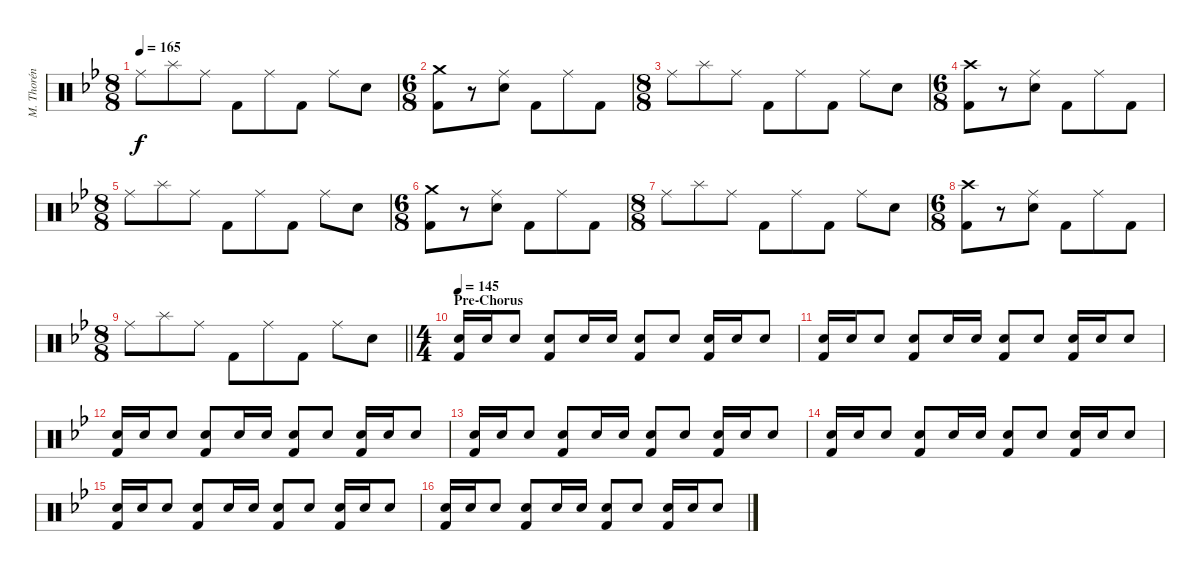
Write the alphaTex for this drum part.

\track ("M. Thorén (Drums)" "M. Thorén ") {instrument percussion}
\staff {score}
\articulation defaults
\ts (8 8)
\tempo 165
\clef neutral
\ks gminor "Ride (middle)".8{dy f} "Splash (hit)".8 "Ride (middle)".8 "Kick (hit) 2".8 "Ride (middle)".8 "Kick (hit) 2".8 "Ride (middle)".8 "Electric Snare (hit)".8
|
\ts (6 8)
("Crash medium (hit)" "Kick (hit) 2").8 r.8 ("Ride (middle)" "Electric Snare (hit)").8 "Kick (hit) 2".8 "Ride (middle)".8 "Kick (hit) 2".8 |
\ts (8 8)
"Ride (middle)".8 "Splash (hit)".8 "Ride (middle)".8 "Kick (hit) 2".8 "Ride (middle)".8 "Kick (hit) 2".8 "Ride (middle)".8 "Electric Snare (hit)".8 |
\ts (6 8)
("Crash high (hit)" "Kick (hit) 2").8 r.8 ("Ride (middle)" "Electric Snare (hit)").8 "Kick (hit) 2".8 "Ride (middle)".8 "Kick (hit) 2".8 |
\ts (8 8)
"Ride (middle)".8 "Splash (hit)".8 "Ride (middle)".8 "Kick (hit) 2".8 "Ride (middle)".8 "Kick (hit) 2".8 "Ride (middle)".8 "Electric Snare (hit)".8 |
\ts (6 8)
("Crash medium (hit)" "Kick (hit) 2").8 r.8 ("Ride (middle)" "Electric Snare (hit)").8 "Kick (hit) 2".8 "Ride (middle)".8 "Kick (hit) 2".8 |
\ts (8 8)
"Ride (middle)".8 "Splash (hit)".8 "Ride (middle)".8 "Kick (hit) 2".8 "Ride (middle)".8 "Kick (hit) 2".8 "Ride (middle)".8 "Electric Snare (hit)".8 |
\ts (6 8)
("Crash high (hit)" "Kick (hit) 2").8 r.8 ("Ride (middle)" "Electric Snare (hit)").8 "Kick (hit) 2".8 "Ride (middle)".8 "Kick (hit) 2".8 |
\ts (8 8)
\barLineRight lightlight "Ride (middle)".8 "Splash (hit)".8 "Ride (middle)".8 "Kick (hit) 2".8 "Ride (middle)".8 "Kick (hit) 2".8 "Ride (middle)".8 "Electric Snare (hit)".8
|
\ts (4 4)
\section ("" "Pre-Chorus")
\tempo 145
("Electric Snare (hit)" "Kick (hit) 2").16 "Electric Snare (hit)".16 "Electric Snare (hit)".8 ("Electric Snare (hit)" "Kick (hit) 2").8 "Electric Snare (hit)".16 "Electric Snare (hit)".16 ("Electric Snare (hit)" "Kick (hit) 2").8 "Electric Snare (hit)".8 ("Electric Snare (hit)" "Kick (hit) 2").16 "Electric Snare (hit)".16 "Electric Snare (hit)".8 |
("Electric Snare (hit)" "Kick (hit) 2").16 "Electric Snare (hit)".16 "Electric Snare (hit)".8 ("Electric Snare (hit)" "Kick (hit) 2").8 "Electric Snare (hit)".16 "Electric Snare (hit)".16 ("Electric Snare (hit)" "Kick (hit) 2").8 "Electric Snare (hit)".8 ("Electric Snare (hit)" "Kick (hit) 2").16 "Electric Snare (hit)".16 "Electric Snare (hit)".8 |
("Electric Snare (hit)" "Kick (hit) 2").16 "Electric Snare (hit)".16 "Electric Snare (hit)".8 ("Electric Snare (hit)" "Kick (hit) 2").8 "Electric Snare (hit)".16 "Electric Snare (hit)".16 ("Electric Snare (hit)" "Kick (hit) 2").8 "Electric Snare (hit)".8 ("Electric Snare (hit)" "Kick (hit) 2").16 "Electric Snare (hit)".16 "Electric Snare (hit)".8 |
("Electric Snare (hit)" "Kick (hit) 2").16 "Electric Snare (hit)".16 "Electric Snare (hit)".8 ("Electric Snare (hit)" "Kick (hit) 2").8 "Electric Snare (hit)".16 "Electric Snare (hit)".16 ("Electric Snare (hit)" "Kick (hit) 2").8 "Electric Snare (hit)".8 ("Electric Snare (hit)" "Kick (hit) 2").16 "Electric Snare (hit)".16 "Electric Snare (hit)".8 |
("Electric Snare (hit)" "Kick (hit) 2").16 "Electric Snare (hit)".16 "Electric Snare (hit)".8 ("Electric Snare (hit)" "Kick (hit) 2").8 "Electric Snare (hit)".16 "Electric Snare (hit)".16 ("Electric Snare (hit)" "Kick (hit) 2").8 "Electric Snare (hit)".8 ("Electric Snare (hit)" "Kick (hit) 2").16 "Electric Snare (hit)".16 "Electric Snare (hit)".8 |
("Electric Snare (hit)" "Kick (hit) 2").16 "Electric Snare (hit)".16 "Electric Snare (hit)".8 ("Electric Snare (hit)" "Kick (hit) 2").8 "Electric Snare (hit)".16 "Electric Snare (hit)".16 ("Electric Snare (hit)" "Kick (hit) 2").8 "Electric Snare (hit)".8 ("Electric Snare (hit)" "Kick (hit) 2").16 "Electric Snare (hit)".16 "Electric Snare (hit)".8 |
("Electric Snare (hit)" "Kick (hit) 2").16 "Electric Snare (hit)".16 "Electric Snare (hit)".8 ("Electric Snare (hit)" "Kick (hit) 2").8 "Electric Snare (hit)".16 "Electric Snare (hit)".16 ("Electric Snare (hit)" "Kick (hit) 2").8 "Electric Snare (hit)".8 ("Electric Snare (hit)" "Kick (hit) 2").16 "Electric Snare (hit)".16 "Electric Snare (hit)".8
